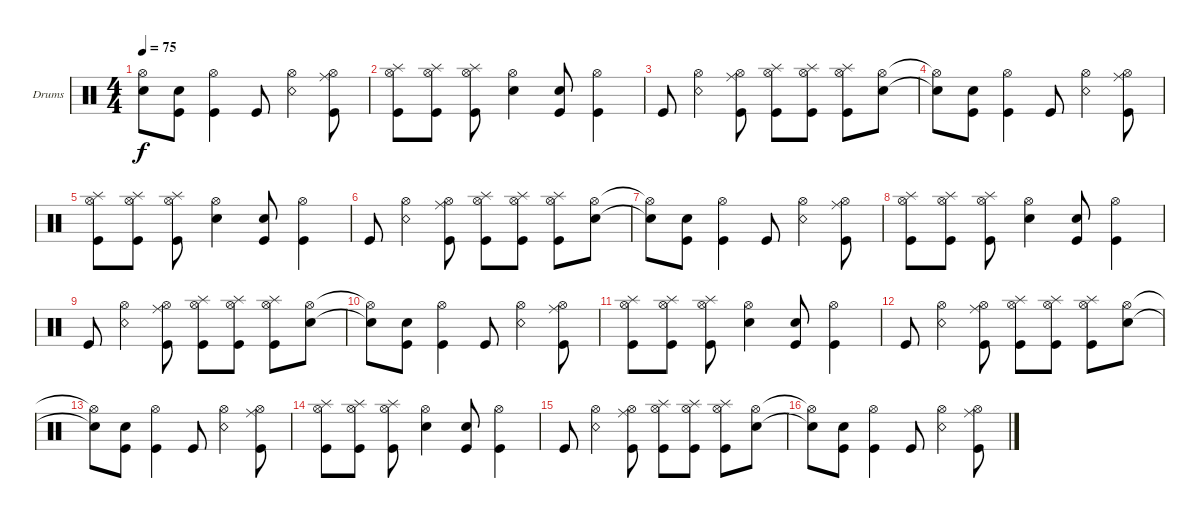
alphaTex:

\bracketExtendMode groupsimilarinstruments
\firstSystemTrackNameOrientation horizontal
\otherSystemsTrackNameOrientation horizontal
\track ("Drumkit" "Drums") {instrument percussion}
\staff {score}
\articulation defaults
\ts (4 4)
\tempo 75
\clef neutral
\ks c
("Snare (hit) 2"{t} "Hi-Hat (open)"{t}).8{dy f} ("Kick (hit)" "Snare (hit) 2").8 ("Kick (hit)" "Hi-Hat (open)").4 "Kick (hit)".8 ("Snare (rim shot)" "Hi-Hat (open)").4 ("Kick (hit)" "Hi-Hat (open)" "Ride (middle)").8 |
("Kick (hit)" "Hi-Hat (open)" "Splash (hit)").8 ("Kick (hit)" "Hi-Hat (open)" "Splash (hit)").8 ("Kick (hit)" "Hi-Hat (open)" "Splash (hit)").8 ("Snare (hit) 2" "Hi-Hat (open)").4 ("Snare (hit) 2" "Kick (hit)").8 ("Kick (hit)" "Hi-Hat (open)").4 |
"Kick (hit)".8 ("Snare (rim shot)" "Hi-Hat (open)").4 ("Kick (hit)" "Hi-Hat (open)" "Ride (middle)").8 ("Kick (hit)" "Hi-Hat (open)" "Splash (hit)").8 ("Kick (hit)" "Hi-Hat (open)" "Splash (hit)").8 ("Kick (hit)" "Hi-Hat (open)" "Splash (hit)").8 ("Snare (hit) 2" "Hi-Hat (open)").8 |
("Snare (hit) 2"{t} "Hi-Hat (open)"{t}).8 ("Kick (hit)" "Snare (hit) 2").8 ("Kick (hit)" "Hi-Hat (open)").4 "Kick (hit)".8 ("Snare (rim shot)" "Hi-Hat (open)").4 ("Kick (hit)" "Hi-Hat (open)" "Ride (middle)").8 |
("Kick (hit)" "Hi-Hat (open)" "Splash (hit)").8 ("Kick (hit)" "Hi-Hat (open)" "Splash (hit)").8 ("Kick (hit)" "Hi-Hat (open)" "Splash (hit)").8 ("Snare (hit) 2" "Hi-Hat (open)").4 ("Snare (hit) 2" "Kick (hit)").8 ("Kick (hit)" "Hi-Hat (open)").4 |
"Kick (hit)".8 ("Snare (rim shot)" "Hi-Hat (open)").4 ("Kick (hit)" "Hi-Hat (open)" "Ride (middle)").8 ("Kick (hit)" "Hi-Hat (open)" "Splash (hit)").8 ("Kick (hit)" "Hi-Hat (open)" "Splash (hit)").8 ("Kick (hit)" "Hi-Hat (open)" "Splash (hit)").8 ("Snare (hit) 2" "Hi-Hat (open)").8 |
("Snare (hit) 2"{t} "Hi-Hat (open)"{t}).8 ("Kick (hit)" "Snare (hit) 2").8 ("Kick (hit)" "Hi-Hat (open)").4 "Kick (hit)".8 ("Snare (rim shot)" "Hi-Hat (open)").4 ("Kick (hit)" "Hi-Hat (open)" "Ride (middle)").8 |
("Kick (hit)" "Hi-Hat (open)" "Splash (hit)").8 ("Kick (hit)" "Hi-Hat (open)" "Splash (hit)").8 ("Kick (hit)" "Hi-Hat (open)" "Splash (hit)").8 ("Snare (hit) 2" "Hi-Hat (open)").4 ("Snare (hit) 2" "Kick (hit)").8 ("Kick (hit)" "Hi-Hat (open)").4 |
"Kick (hit)".8 ("Snare (rim shot)" "Hi-Hat (open)").4 ("Kick (hit)" "Hi-Hat (open)" "Ride (middle)").8 ("Kick (hit)" "Hi-Hat (open)" "Splash (hit)").8 ("Kick (hit)" "Hi-Hat (open)" "Splash (hit)").8 ("Kick (hit)" "Hi-Hat (open)" "Splash (hit)").8 ("Snare (hit) 2" "Hi-Hat (open)").8 |
("Snare (hit) 2"{t} "Hi-Hat (open)"{t}).8 ("Kick (hit)" "Snare (hit) 2").8 ("Kick (hit)" "Hi-Hat (open)").4 "Kick (hit)".8 ("Snare (rim shot)" "Hi-Hat (open)").4 ("Kick (hit)" "Hi-Hat (open)" "Ride (middle)").8 |
("Kick (hit)" "Hi-Hat (open)" "Splash (hit)").8 ("Kick (hit)" "Hi-Hat (open)" "Splash (hit)").8 ("Kick (hit)" "Hi-Hat (open)" "Splash (hit)").8 ("Snare (hit) 2" "Hi-Hat (open)").4 ("Snare (hit) 2" "Kick (hit)").8 ("Kick (hit)" "Hi-Hat (open)").4 |
"Kick (hit)".8 ("Snare (rim shot)" "Hi-Hat (open)").4 ("Kick (hit)" "Hi-Hat (open)" "Ride (middle)").8 ("Kick (hit)" "Hi-Hat (open)" "Splash (hit)").8 ("Kick (hit)" "Hi-Hat (open)" "Splash (hit)").8 ("Kick (hit)" "Hi-Hat (open)" "Splash (hit)").8 ("Snare (hit) 2" "Hi-Hat (open)").8 |
("Snare (hit) 2"{t} "Hi-Hat (open)"{t}).8 ("Kick (hit)" "Snare (hit) 2").8 ("Kick (hit)" "Hi-Hat (open)").4 "Kick (hit)".8 ("Snare (rim shot)" "Hi-Hat (open)").4 ("Kick (hit)" "Hi-Hat (open)" "Ride (middle)").8 |
("Kick (hit)" "Hi-Hat (open)" "Splash (hit)").8 ("Kick (hit)" "Hi-Hat (open)" "Splash (hit)").8 ("Kick (hit)" "Hi-Hat (open)" "Splash (hit)").8 ("Snare (hit) 2" "Hi-Hat (open)").4 ("Snare (hit) 2" "Kick (hit)").8 ("Kick (hit)" "Hi-Hat (open)").4 |
"Kick (hit)".8 ("Snare (rim shot)" "Hi-Hat (open)").4 ("Kick (hit)" "Hi-Hat (open)" "Ride (middle)").8 ("Kick (hit)" "Hi-Hat (open)" "Splash (hit)").8 ("Kick (hit)" "Hi-Hat (open)" "Splash (hit)").8 ("Kick (hit)" "Hi-Hat (open)" "Splash (hit)").8 ("Snare (hit) 2" "Hi-Hat (open)").8 |
("Snare (hit) 2"{t} "Hi-Hat (open)"{t}).8 ("Kick (hit)" "Snare (hit) 2").8 ("Kick (hit)" "Hi-Hat (open)").4 "Kick (hit)".8 ("Snare (rim shot)" "Hi-Hat (open)").4 ("Kick (hit)" "Hi-Hat (open)" "Ride (middle)").8
